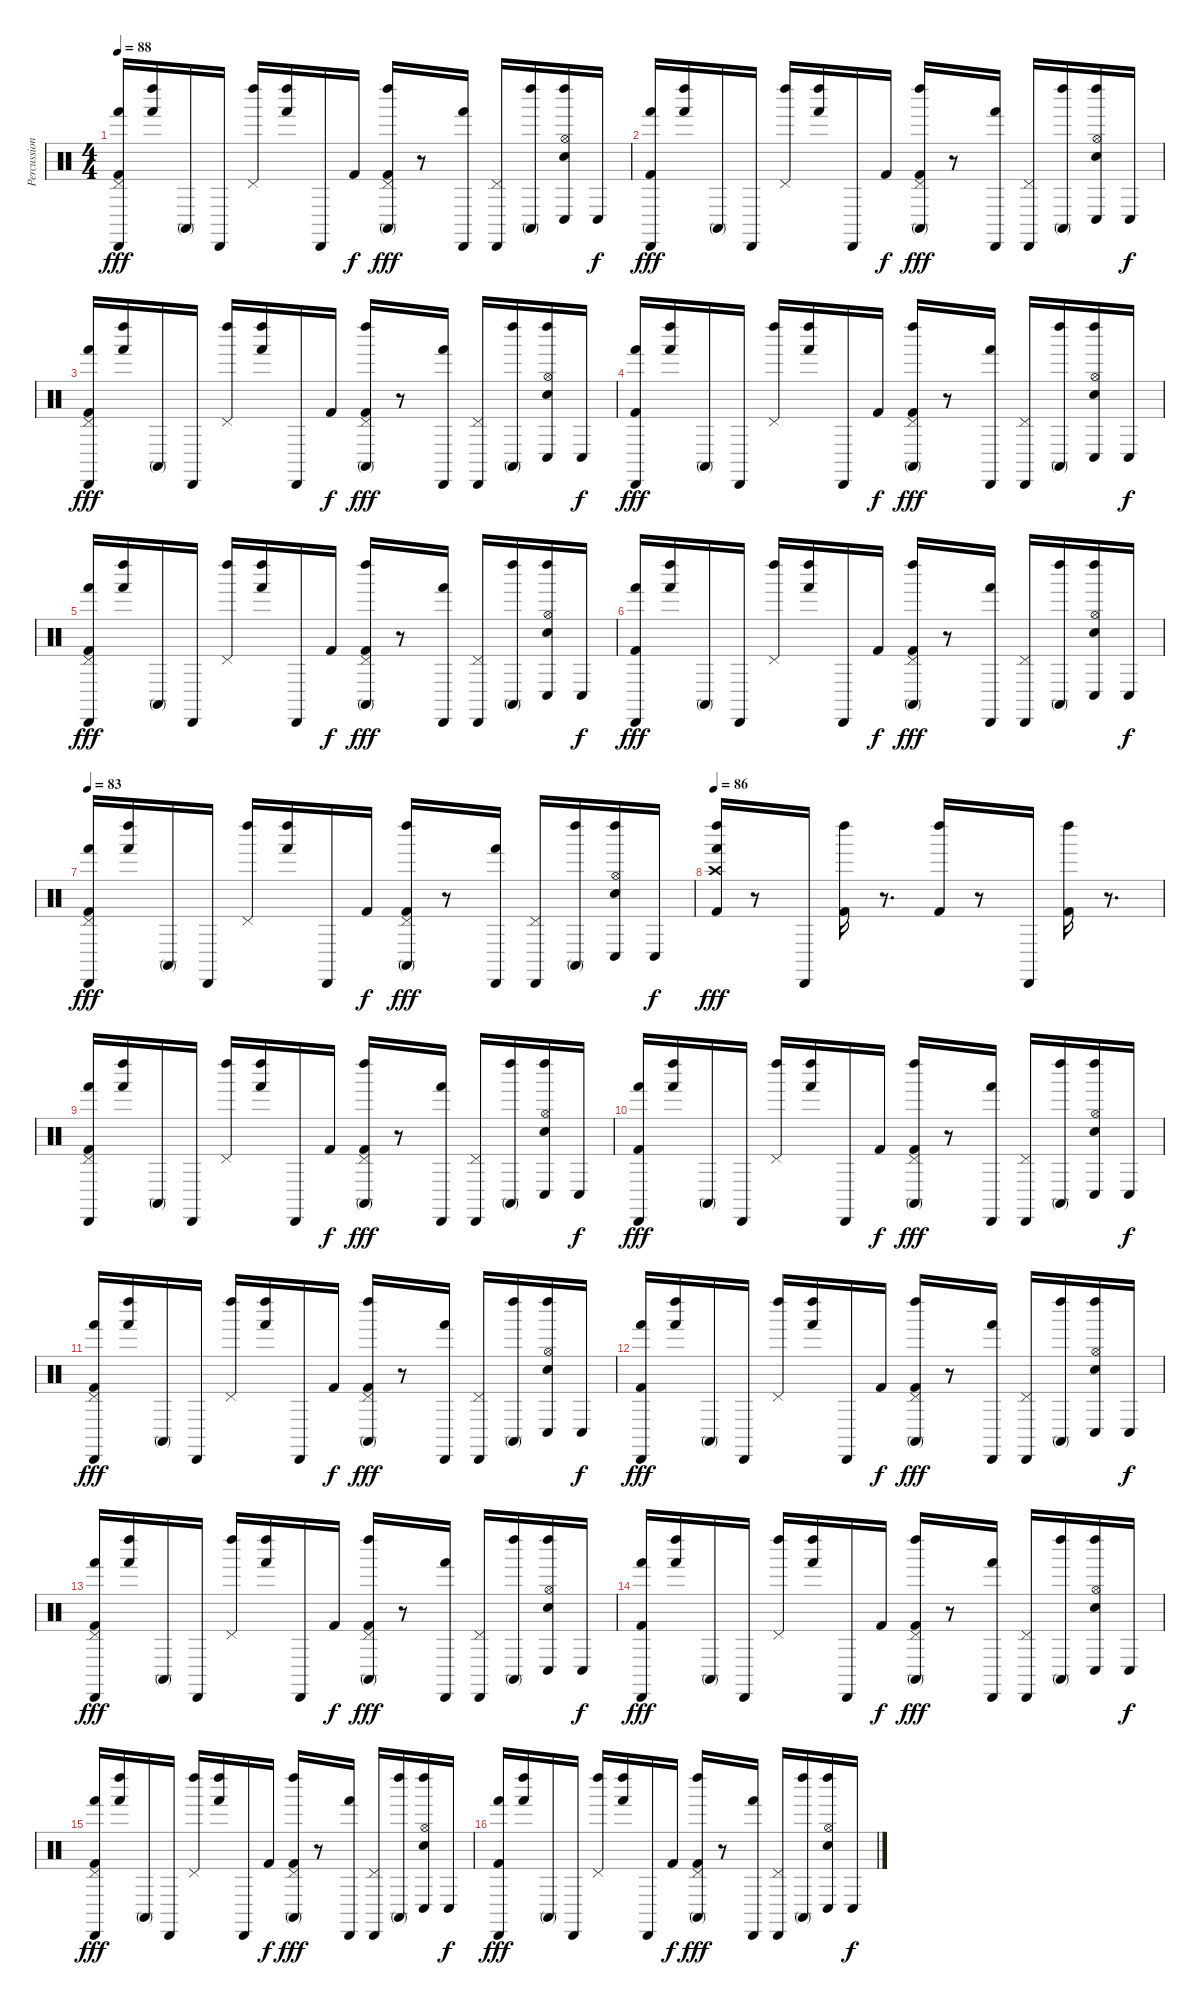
\track ("Percussion" "Percussion") {instrument percussion}
\staff {score}
\articulation defaults
\ts (4 4)
\tempo 88
\clef neutral
\ks c
("Pedal Hi-Hat (hit)" "Kick (hit) 2" "Hand (hit)" "Cabasa (hit)").16{dy fff} ("Hand (hit)" "Left Maraca (hit)").16 "Conga high (mute)".16 "Cabasa (hit)".16 ("Pedal Hi-Hat (hit)" "Left Maraca (hit)").16 ("Left Maraca (hit)" "Hand (hit)").16 "Cabasa (hit)".16 "Kick (hit) 2".16{dy f} ("Pedal Hi-Hat (hit)" "Left Maraca (hit)" "Conga high (mute)" "Kick (hit) 2").16{dy fff} r.8 ("Cabasa (hit)" "Hand (hit)").16 ("Pedal Hi-Hat (hit)" "Cabasa (hit)").16 ("Left Maraca (hit)" "Conga high (mute)").16 ("Hi-Hat (open)" "Snare (hit) 2" "Left Maraca (hit)" "Conga low (hit)").16 "Conga low (hit)".16{dy f} |
("Hand (hit)" "Cabasa (hit)" "Kick (hit) 2").16{dy fff} ("Hand (hit)" "Left Maraca (hit)").16 "Conga high (mute)".16 "Cabasa (hit)".16 ("Pedal Hi-Hat (hit)" "Left Maraca (hit)").16 ("Left Maraca (hit)" "Hand (hit)").16 "Cabasa (hit)".16 "Kick (hit) 2".16{dy f} ("Pedal Hi-Hat (hit)" "Left Maraca (hit)" "Conga high (mute)" "Kick (hit) 2").16{dy fff} r.8 ("Cabasa (hit)" "Hand (hit)").16 ("Pedal Hi-Hat (hit)" "Cabasa (hit)").16 ("Left Maraca (hit)" "Conga high (mute)").16 ("Hi-Hat (open)" "Snare (hit) 2" "Left Maraca (hit)" "Conga low (hit)").16 "Conga low (hit)".16{dy f} |
("Pedal Hi-Hat (hit)" "Kick (hit) 2" "Hand (hit)" "Cabasa (hit)").16{dy fff} ("Hand (hit)" "Left Maraca (hit)").16 "Conga high (mute)".16 "Cabasa (hit)".16 ("Pedal Hi-Hat (hit)" "Left Maraca (hit)").16 ("Left Maraca (hit)" "Hand (hit)").16 "Cabasa (hit)".16 "Kick (hit) 2".16{dy f} ("Pedal Hi-Hat (hit)" "Left Maraca (hit)" "Conga high (mute)" "Kick (hit) 2").16{dy fff} r.8 ("Cabasa (hit)" "Hand (hit)").16 ("Pedal Hi-Hat (hit)" "Cabasa (hit)").16 ("Left Maraca (hit)" "Conga high (mute)").16 ("Hi-Hat (open)" "Snare (hit) 2" "Left Maraca (hit)" "Conga low (hit)").16 "Conga low (hit)".16{dy f} |
("Hand (hit)" "Cabasa (hit)" "Kick (hit) 2").16{dy fff} ("Hand (hit)" "Left Maraca (hit)").16 "Conga high (mute)".16 "Cabasa (hit)".16 ("Pedal Hi-Hat (hit)" "Left Maraca (hit)").16 ("Left Maraca (hit)" "Hand (hit)").16 "Cabasa (hit)".16 "Kick (hit) 2".16{dy f} ("Pedal Hi-Hat (hit)" "Left Maraca (hit)" "Conga high (mute)" "Kick (hit) 2").16{dy fff} r.8 ("Cabasa (hit)" "Hand (hit)").16 ("Pedal Hi-Hat (hit)" "Cabasa (hit)").16 ("Left Maraca (hit)" "Conga high (mute)").16 ("Hi-Hat (open)" "Snare (hit) 2" "Left Maraca (hit)" "Conga low (hit)").16 "Conga low (hit)".16{dy f} |
("Pedal Hi-Hat (hit)" "Kick (hit) 2" "Hand (hit)" "Cabasa (hit)").16{dy fff} ("Hand (hit)" "Left Maraca (hit)").16 "Conga high (mute)".16 "Cabasa (hit)".16 ("Pedal Hi-Hat (hit)" "Left Maraca (hit)").16 ("Left Maraca (hit)" "Hand (hit)").16 "Cabasa (hit)".16 "Kick (hit) 2".16{dy f} ("Pedal Hi-Hat (hit)" "Left Maraca (hit)" "Conga high (mute)" "Kick (hit) 2").16{dy fff} r.8 ("Cabasa (hit)" "Hand (hit)").16 ("Pedal Hi-Hat (hit)" "Cabasa (hit)").16 ("Left Maraca (hit)" "Conga high (mute)").16 ("Hi-Hat (open)" "Snare (hit) 2" "Left Maraca (hit)" "Conga low (hit)").16 "Conga low (hit)".16{dy f} |
("Hand (hit)" "Cabasa (hit)" "Kick (hit) 2").16{dy fff} ("Hand (hit)" "Left Maraca (hit)").16 "Conga high (mute)".16 "Cabasa (hit)".16 ("Pedal Hi-Hat (hit)" "Left Maraca (hit)").16 ("Left Maraca (hit)" "Hand (hit)").16 "Cabasa (hit)".16 "Kick (hit) 2".16{dy f} ("Pedal Hi-Hat (hit)" "Left Maraca (hit)" "Conga high (mute)" "Kick (hit) 2").16{dy fff} r.8 ("Cabasa (hit)" "Hand (hit)").16 ("Pedal Hi-Hat (hit)" "Cabasa (hit)").16 ("Left Maraca (hit)" "Conga high (mute)").16 ("Hi-Hat (open)" "Snare (hit) 2" "Left Maraca (hit)" "Conga low (hit)").16 "Conga low (hit)".16{dy f} |
\tempo 83
("Pedal Hi-Hat (hit)" "Kick (hit) 2" "Hand (hit)" "Cabasa (hit)").16{dy fff} ("Hand (hit)" "Left Maraca (hit)").16 "Conga high (mute)".16 "Cabasa (hit)".16 ("Pedal Hi-Hat (hit)" "Left Maraca (hit)").16 ("Left Maraca (hit)" "Hand (hit)").16 "Cabasa (hit)".16 "Kick (hit) 2".16{dy f} ("Pedal Hi-Hat (hit)" "Left Maraca (hit)" "Conga high (mute)" "Kick (hit) 2").16{dy fff} r.8 ("Cabasa (hit)" "Hand (hit)").16 ("Pedal Hi-Hat (hit)" "Cabasa (hit)").16 ("Left Maraca (hit)" "Conga high (mute)").16 ("Hi-Hat (open)" "Snare (hit) 2" "Left Maraca (hit)" "Conga low (hit)").16 "Conga low (hit)".16{dy f} |
\tempo 86
("Left Maraca (hit)" "Hand (hit)" "Crash high (hit)" "Kick (hit) 2").16{dy fff} r.8 "Cabasa (hit)".16 ("Left Maraca (hit)" "Kick (hit) 2").16 r.8{d} ("Left Maraca (hit)" "Kick (hit) 2").16 r.8 "Cabasa (hit)".16 ("Left Maraca (hit)" "Kick (hit) 2").16 r.8{d} |
("Pedal Hi-Hat (hit)" "Kick (hit) 2" "Hand (hit)" "Cabasa (hit)").16 ("Hand (hit)" "Left Maraca (hit)").16 "Conga high (mute)".16 "Cabasa (hit)".16 ("Pedal Hi-Hat (hit)" "Left Maraca (hit)").16 ("Left Maraca (hit)" "Hand (hit)").16 "Cabasa (hit)".16 "Kick (hit) 2".16{dy f} ("Pedal Hi-Hat (hit)" "Left Maraca (hit)" "Conga high (mute)" "Kick (hit) 2").16{dy fff} r.8 ("Cabasa (hit)" "Hand (hit)").16 ("Pedal Hi-Hat (hit)" "Cabasa (hit)").16 ("Left Maraca (hit)" "Conga high (mute)").16 ("Hi-Hat (open)" "Snare (hit) 2" "Left Maraca (hit)" "Conga low (hit)").16 "Conga low (hit)".16{dy f} |
("Hand (hit)" "Cabasa (hit)" "Kick (hit) 2").16{dy fff} ("Hand (hit)" "Left Maraca (hit)").16 "Conga high (mute)".16 "Cabasa (hit)".16 ("Pedal Hi-Hat (hit)" "Left Maraca (hit)").16 ("Left Maraca (hit)" "Hand (hit)").16 "Cabasa (hit)".16 "Kick (hit) 2".16{dy f} ("Pedal Hi-Hat (hit)" "Left Maraca (hit)" "Conga high (mute)" "Kick (hit) 2").16{dy fff} r.8 ("Cabasa (hit)" "Hand (hit)").16 ("Pedal Hi-Hat (hit)" "Cabasa (hit)").16 ("Left Maraca (hit)" "Conga high (mute)").16 ("Hi-Hat (open)" "Snare (hit) 2" "Left Maraca (hit)" "Conga low (hit)").16 "Conga low (hit)".16{dy f} |
("Pedal Hi-Hat (hit)" "Kick (hit) 2" "Hand (hit)" "Cabasa (hit)").16{dy fff} ("Hand (hit)" "Left Maraca (hit)").16 "Conga high (mute)".16 "Cabasa (hit)".16 ("Pedal Hi-Hat (hit)" "Left Maraca (hit)").16 ("Left Maraca (hit)" "Hand (hit)").16 "Cabasa (hit)".16 "Kick (hit) 2".16{dy f} ("Pedal Hi-Hat (hit)" "Left Maraca (hit)" "Conga high (mute)" "Kick (hit) 2").16{dy fff} r.8 ("Cabasa (hit)" "Hand (hit)").16 ("Pedal Hi-Hat (hit)" "Cabasa (hit)").16 ("Left Maraca (hit)" "Conga high (mute)").16 ("Hi-Hat (open)" "Snare (hit) 2" "Left Maraca (hit)" "Conga low (hit)").16 "Conga low (hit)".16{dy f} |
("Hand (hit)" "Cabasa (hit)" "Kick (hit) 2").16{dy fff} ("Hand (hit)" "Left Maraca (hit)").16 "Conga high (mute)".16 "Cabasa (hit)".16 ("Pedal Hi-Hat (hit)" "Left Maraca (hit)").16 ("Left Maraca (hit)" "Hand (hit)").16 "Cabasa (hit)".16 "Kick (hit) 2".16{dy f} ("Pedal Hi-Hat (hit)" "Left Maraca (hit)" "Conga high (mute)" "Kick (hit) 2").16{dy fff} r.8 ("Cabasa (hit)" "Hand (hit)").16 ("Pedal Hi-Hat (hit)" "Cabasa (hit)").16 ("Left Maraca (hit)" "Conga high (mute)").16 ("Hi-Hat (open)" "Snare (hit) 2" "Left Maraca (hit)" "Conga low (hit)").16 "Conga low (hit)".16{dy f} |
("Pedal Hi-Hat (hit)" "Kick (hit) 2" "Hand (hit)" "Cabasa (hit)").16{dy fff} ("Hand (hit)" "Left Maraca (hit)").16 "Conga high (mute)".16 "Cabasa (hit)".16 ("Pedal Hi-Hat (hit)" "Left Maraca (hit)").16 ("Left Maraca (hit)" "Hand (hit)").16 "Cabasa (hit)".16 "Kick (hit) 2".16{dy f} ("Pedal Hi-Hat (hit)" "Left Maraca (hit)" "Conga high (mute)" "Kick (hit) 2").16{dy fff} r.8 ("Cabasa (hit)" "Hand (hit)").16 ("Pedal Hi-Hat (hit)" "Cabasa (hit)").16 ("Left Maraca (hit)" "Conga high (mute)").16 ("Hi-Hat (open)" "Snare (hit) 2" "Left Maraca (hit)" "Conga low (hit)").16 "Conga low (hit)".16{dy f} |
("Hand (hit)" "Cabasa (hit)" "Kick (hit) 2").16{dy fff} ("Hand (hit)" "Left Maraca (hit)").16 "Conga high (mute)".16 "Cabasa (hit)".16 ("Pedal Hi-Hat (hit)" "Left Maraca (hit)").16 ("Left Maraca (hit)" "Hand (hit)").16 "Cabasa (hit)".16 "Kick (hit) 2".16{dy f} ("Pedal Hi-Hat (hit)" "Left Maraca (hit)" "Conga high (mute)" "Kick (hit) 2").16{dy fff} r.8 ("Cabasa (hit)" "Hand (hit)").16 ("Pedal Hi-Hat (hit)" "Cabasa (hit)").16 ("Left Maraca (hit)" "Conga high (mute)").16 ("Hi-Hat (open)" "Snare (hit) 2" "Left Maraca (hit)" "Conga low (hit)").16 "Conga low (hit)".16{dy f} |
("Pedal Hi-Hat (hit)" "Kick (hit) 2" "Hand (hit)" "Cabasa (hit)").16{dy fff} ("Hand (hit)" "Left Maraca (hit)").16 "Conga high (mute)".16 "Cabasa (hit)".16 ("Pedal Hi-Hat (hit)" "Left Maraca (hit)").16 ("Left Maraca (hit)" "Hand (hit)").16 "Cabasa (hit)".16 "Kick (hit) 2".16{dy f} ("Pedal Hi-Hat (hit)" "Left Maraca (hit)" "Conga high (mute)" "Kick (hit) 2").16{dy fff} r.8 ("Cabasa (hit)" "Hand (hit)").16 ("Pedal Hi-Hat (hit)" "Cabasa (hit)").16 ("Left Maraca (hit)" "Conga high (mute)").16 ("Hi-Hat (open)" "Snare (hit) 2" "Left Maraca (hit)" "Conga low (hit)").16 "Conga low (hit)".16{dy f} |
("Hand (hit)" "Cabasa (hit)" "Kick (hit) 2").16{dy fff} ("Hand (hit)" "Left Maraca (hit)").16 "Conga high (mute)".16 "Cabasa (hit)".16 ("Pedal Hi-Hat (hit)" "Left Maraca (hit)").16 ("Left Maraca (hit)" "Hand (hit)").16 "Cabasa (hit)".16 "Kick (hit) 2".16{dy f} ("Pedal Hi-Hat (hit)" "Left Maraca (hit)" "Conga high (mute)" "Kick (hit) 2").16{dy fff} r.8 ("Cabasa (hit)" "Hand (hit)").16 ("Pedal Hi-Hat (hit)" "Cabasa (hit)").16 ("Left Maraca (hit)" "Conga high (mute)").16 ("Hi-Hat (open)" "Snare (hit) 2" "Left Maraca (hit)" "Conga low (hit)").16 "Conga low (hit)".16{dy f}
